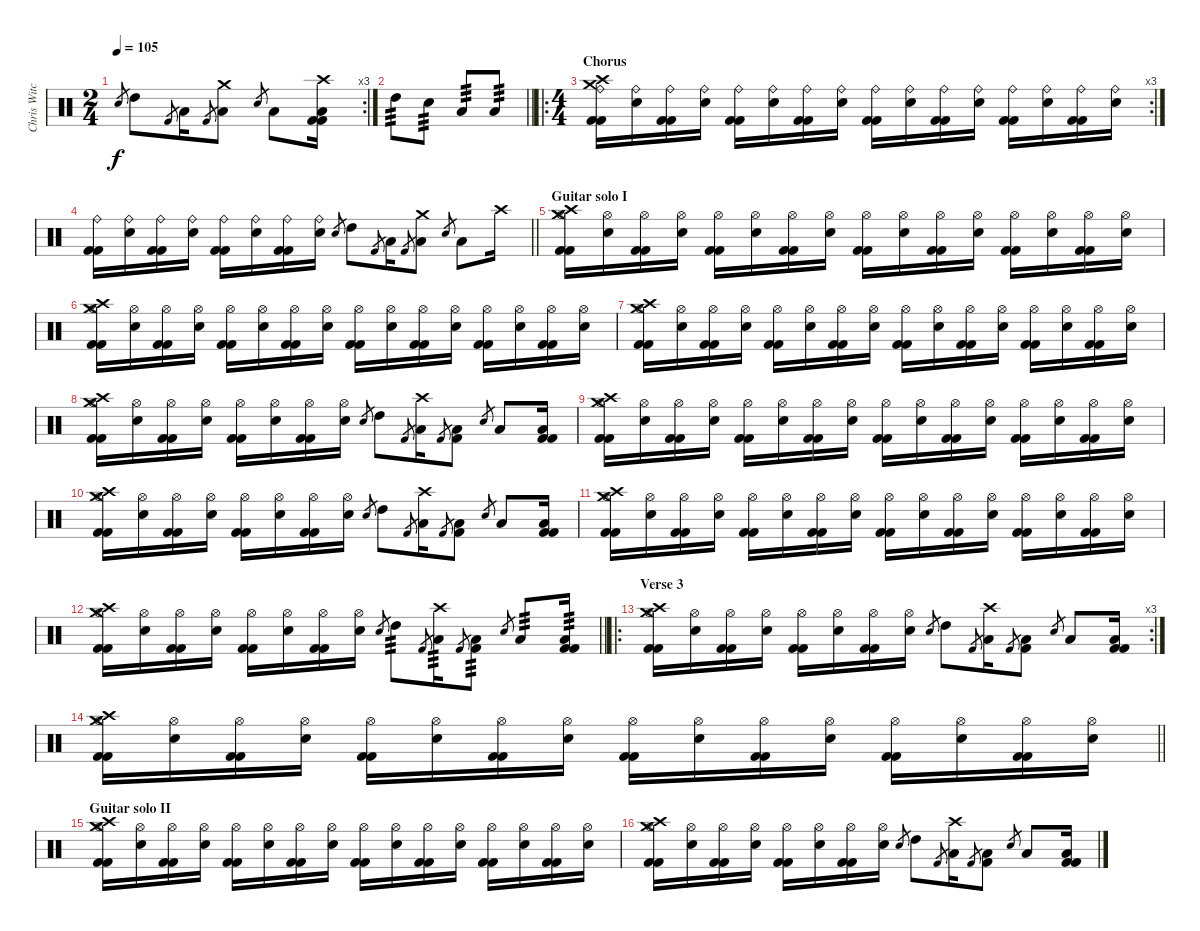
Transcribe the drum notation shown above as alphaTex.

\track ("Chris Witchhunter" "Chris Witc") {instrument percussion}
\staff {score}
\articulation defaults
\rc 3
\ts (2 4)
\tempo 105
\clef neutral
\ks c "Electric Snare (hit)".8{gr dy f} "High Tom (hit)".8 "Kick (hit) 2".8{gr} "Low Tom (hit)".16 "Kick (hit) 2".8{gr}
("Crash medium (hit)" "Low Tom (hit)").8 "Electric Snare (hit)".8{gr} "Low Floor Tom (hit)".8 ("Crash high (hit)" "Low Tom (hit)" "Kick (hit) 2" "Kick (hit) 2").16 |
\barLineRight lightlight "High Tom (hit)".8{tp 3} "Electric Snare (hit)".8{tp 3} "Low Floor Tom (hit)".8{tp 3} "Low Tom (hit)".8{tp 3}
|
\ro
\rc 3
\ts (4 4)
\section ("" "Chorus")
("Crash medium (hit)" "Crash high (hit)" "Ride (bell)" "Kick (hit) 2" "Kick (hit) 2").16 ("Ride (bell)" "Electric Snare (hit)").16 ("Ride (bell)" "Kick (hit) 2" "Kick (hit) 2").16 ("Ride (bell)" "Electric Snare (hit)").16 ("Ride (bell)" "Kick (hit) 2" "Kick (hit) 2").16 ("Ride (bell)" "Electric Snare (hit)").16 ("Ride (bell)" "Kick (hit) 2" "Kick (hit) 2").16 ("Ride (bell)" "Electric Snare (hit)").16 ("Ride (bell)" "Kick (hit) 2" "Kick (hit) 2").16 ("Ride (bell)" "Electric Snare (hit)").16 ("Ride (bell)" "Kick (hit) 2" "Kick (hit) 2").16 ("Ride (bell)" "Electric Snare (hit)").16 ("Ride (bell)" "Kick (hit) 2" "Kick (hit) 2").16 ("Ride (bell)" "Electric Snare (hit)").16 ("Ride (bell)" "Kick (hit) 2" "Kick (hit) 2").16 ("Ride (bell)" "Electric Snare (hit)").16 |
\barLineRight lightlight
("Ride (bell)" "Kick (hit) 2" "Kick (hit) 2").16 ("Ride (bell)" "Electric Snare (hit)").16 ("Ride (bell)" "Kick (hit) 2" "Kick (hit) 2").16 ("Ride (bell)" "Electric Snare (hit)").16 ("Ride (bell)" "Kick (hit) 2" "Kick (hit) 2").16 ("Ride (bell)" "Electric Snare (hit)").16 ("Ride (bell)" "Kick (hit) 2" "Kick (hit) 2").16 ("Ride (bell)" "Electric Snare (hit)").16 "Electric Snare (hit)".8{gr} "High Tom (hit)".8 "Kick (hit) 2".8{gr} "Low Tom (hit)".16 "Kick (hit) 2".8{gr} ("Crash medium (hit)" "Low Tom (hit)").8 "Electric Snare (hit)".8{gr} "Low Floor Tom (hit)".8 "Crash high (hit)".16 |
\section ("" "Guitar solo I")
("Crash medium (hit)" "Crash high (hit)" "Hi-Hat (open)" "Kick (hit) 2" "Kick (hit) 2").16 ("Hi-Hat (open)" "Electric Snare (hit)").16 ("Hi-Hat (open)" "Kick (hit) 2" "Kick (hit) 2").16 ("Hi-Hat (open)" "Electric Snare (hit)").16 ("Hi-Hat (open)" "Kick (hit) 2" "Kick (hit) 2").16 ("Hi-Hat (open)" "Electric Snare (hit)").16 ("Hi-Hat (open)" "Kick (hit) 2" "Kick (hit) 2").16 ("Hi-Hat (open)" "Electric Snare (hit)").16 ("Hi-Hat (open)" "Kick (hit) 2" "Kick (hit) 2").16 ("Hi-Hat (open)" "Electric Snare (hit)").16 ("Hi-Hat (open)" "Kick (hit) 2" "Kick (hit) 2").16 ("Hi-Hat (open)" "Electric Snare (hit)").16 ("Hi-Hat (open)" "Kick (hit) 2" "Kick (hit) 2").16 ("Hi-Hat (open)" "Electric Snare (hit)").16 ("Hi-Hat (open)" "Kick (hit) 2" "Kick (hit) 2").16 ("Hi-Hat (open)" "Electric Snare (hit)").16 |
("Crash medium (hit)" "Crash high (hit)" "Hi-Hat (open)" "Kick (hit) 2" "Kick (hit) 2").16 ("Hi-Hat (open)" "Electric Snare (hit)").16 ("Hi-Hat (open)" "Kick (hit) 2" "Kick (hit) 2").16 ("Hi-Hat (open)" "Electric Snare (hit)").16 ("Hi-Hat (open)" "Kick (hit) 2" "Kick (hit) 2").16 ("Hi-Hat (open)" "Electric Snare (hit)").16 ("Hi-Hat (open)" "Kick (hit) 2" "Kick (hit) 2").16 ("Hi-Hat (open)" "Electric Snare (hit)").16 ("Hi-Hat (open)" "Kick (hit) 2" "Kick (hit) 2").16 ("Hi-Hat (open)" "Electric Snare (hit)").16 ("Hi-Hat (open)" "Kick (hit) 2" "Kick (hit) 2").16 ("Hi-Hat (open)" "Electric Snare (hit)").16 ("Hi-Hat (open)" "Kick (hit) 2" "Kick (hit) 2").16 ("Hi-Hat (open)" "Electric Snare (hit)").16 ("Hi-Hat (open)" "Kick (hit) 2" "Kick (hit) 2").16 ("Hi-Hat (open)" "Electric Snare (hit)").16 |
("Crash medium (hit)" "Crash high (hit)" "Hi-Hat (open)" "Kick (hit) 2" "Kick (hit) 2").16 ("Hi-Hat (open)" "Electric Snare (hit)").16 ("Hi-Hat (open)" "Kick (hit) 2" "Kick (hit) 2").16 ("Hi-Hat (open)" "Electric Snare (hit)").16 ("Hi-Hat (open)" "Kick (hit) 2" "Kick (hit) 2").16 ("Hi-Hat (open)" "Electric Snare (hit)").16 ("Hi-Hat (open)" "Kick (hit) 2" "Kick (hit) 2").16 ("Hi-Hat (open)" "Electric Snare (hit)").16 ("Hi-Hat (open)" "Kick (hit) 2" "Kick (hit) 2").16 ("Hi-Hat (open)" "Electric Snare (hit)").16 ("Hi-Hat (open)" "Kick (hit) 2" "Kick (hit) 2").16 ("Hi-Hat (open)" "Electric Snare (hit)").16 ("Hi-Hat (open)" "Kick (hit) 2" "Kick (hit) 2").16 ("Hi-Hat (open)" "Electric Snare (hit)").16 ("Hi-Hat (open)" "Kick (hit) 2" "Kick (hit) 2").16 ("Hi-Hat (open)" "Electric Snare (hit)").16 |
("Crash medium (hit)" "Crash high (hit)" "Hi-Hat (open)" "Kick (hit) 2" "Kick (hit) 2").16 ("Hi-Hat (open)" "Electric Snare (hit)").16 ("Hi-Hat (open)" "Kick (hit) 2" "Kick (hit) 2").16 ("Hi-Hat (open)" "Electric Snare (hit)").16 ("Hi-Hat (open)" "Kick (hit) 2" "Kick (hit) 2").16 ("Hi-Hat (open)" "Electric Snare (hit)").16 ("Hi-Hat (open)" "Kick (hit) 2" "Kick (hit) 2").16 ("Hi-Hat (open)" "Electric Snare (hit)").16 "Electric Snare (hit)".8{gr} "High Tom (hit)".8 "Kick (hit) 2".8{gr} ("Crash high (hit)" "Low Tom (hit)").16 "Kick (hit) 2".8{gr} ("Low Tom (hit)" "Kick (hit) 2").8 "Electric Snare (hit)".8{gr} "Low Floor Tom (hit)".8 ("Low Tom (hit)" "Kick (hit) 2" "Kick (hit) 2").16 |
("Crash medium (hit)" "Crash high (hit)" "Hi-Hat (open)" "Kick (hit) 2" "Kick (hit) 2").16 ("Hi-Hat (open)" "Electric Snare (hit)").16 ("Hi-Hat (open)" "Kick (hit) 2" "Kick (hit) 2").16 ("Hi-Hat (open)" "Electric Snare (hit)").16 ("Hi-Hat (open)" "Kick (hit) 2" "Kick (hit) 2").16 ("Hi-Hat (open)" "Electric Snare (hit)").16 ("Hi-Hat (open)" "Kick (hit) 2" "Kick (hit) 2").16 ("Hi-Hat (open)" "Electric Snare (hit)").16 ("Hi-Hat (open)" "Kick (hit) 2" "Kick (hit) 2").16 ("Hi-Hat (open)" "Electric Snare (hit)").16 ("Hi-Hat (open)" "Kick (hit) 2" "Kick (hit) 2").16 ("Hi-Hat (open)" "Electric Snare (hit)").16 ("Hi-Hat (open)" "Kick (hit) 2" "Kick (hit) 2").16 ("Hi-Hat (open)" "Electric Snare (hit)").16 ("Hi-Hat (open)" "Kick (hit) 2" "Kick (hit) 2").16 ("Hi-Hat (open)" "Electric Snare (hit)").16 |
("Crash medium (hit)" "Crash high (hit)" "Hi-Hat (open)" "Kick (hit) 2" "Kick (hit) 2").16 ("Hi-Hat (open)" "Electric Snare (hit)").16 ("Hi-Hat (open)" "Kick (hit) 2" "Kick (hit) 2").16 ("Hi-Hat (open)" "Electric Snare (hit)").16 ("Hi-Hat (open)" "Kick (hit) 2" "Kick (hit) 2").16 ("Hi-Hat (open)" "Electric Snare (hit)").16 ("Hi-Hat (open)" "Kick (hit) 2" "Kick (hit) 2").16 ("Hi-Hat (open)" "Electric Snare (hit)").16 "Electric Snare (hit)".8{gr} "High Tom (hit)".8 "Kick (hit) 2".8{gr} ("Crash high (hit)" "Low Tom (hit)").16 "Kick (hit) 2".8{gr} ("Low Tom (hit)" "Kick (hit) 2").8 "Electric Snare (hit)".8{gr} "Low Floor Tom (hit)".8 ("Low Tom (hit)" "Kick (hit) 2" "Kick (hit) 2").16 |
("Crash medium (hit)" "Crash high (hit)" "Hi-Hat (open)" "Kick (hit) 2" "Kick (hit) 2").16 ("Hi-Hat (open)" "Electric Snare (hit)").16 ("Hi-Hat (open)" "Kick (hit) 2" "Kick (hit) 2").16 ("Hi-Hat (open)" "Electric Snare (hit)").16 ("Hi-Hat (open)" "Kick (hit) 2" "Kick (hit) 2").16 ("Hi-Hat (open)" "Electric Snare (hit)").16 ("Hi-Hat (open)" "Kick (hit) 2" "Kick (hit) 2").16 ("Hi-Hat (open)" "Electric Snare (hit)").16 ("Hi-Hat (open)" "Kick (hit) 2" "Kick (hit) 2").16 ("Hi-Hat (open)" "Electric Snare (hit)").16 ("Hi-Hat (open)" "Kick (hit) 2" "Kick (hit) 2").16 ("Hi-Hat (open)" "Electric Snare (hit)").16 ("Hi-Hat (open)" "Kick (hit) 2" "Kick (hit) 2").16 ("Hi-Hat (open)" "Electric Snare (hit)").16 ("Hi-Hat (open)" "Kick (hit) 2" "Kick (hit) 2").16 ("Hi-Hat (open)" "Electric Snare (hit)").16 |
\barLineRight lightlight
("Crash medium (hit)" "Crash high (hit)" "Hi-Hat (open)" "Kick (hit) 2" "Kick (hit) 2").16 ("Hi-Hat (open)" "Electric Snare (hit)").16 ("Hi-Hat (open)" "Kick (hit) 2" "Kick (hit) 2").16 ("Hi-Hat (open)" "Electric Snare (hit)").16 ("Hi-Hat (open)" "Kick (hit) 2" "Kick (hit) 2").16 ("Hi-Hat (open)" "Electric Snare (hit)").16 ("Hi-Hat (open)" "Kick (hit) 2" "Kick (hit) 2").16 ("Hi-Hat (open)" "Electric Snare (hit)").16 "Electric Snare (hit)".8{gr} "High Tom (hit)".8{tp 3} "Kick (hit) 2".8{gr} ("Crash high (hit)" "Low Tom (hit)").16{tp 3} "Kick (hit) 2".8{gr} ("Low Tom (hit)" "Kick (hit) 2").8{tp 3} "Electric Snare (hit)".8{gr} "Low Floor Tom (hit)".8{tp 3} ("Low Tom (hit)" "Kick (hit) 2" "Kick (hit) 2").16{tp 3} |
\ro
\rc 3
\section ("" "Verse 3")
("Crash medium (hit)" "Crash high (hit)" "Hi-Hat (open)" "Kick (hit) 2" "Kick (hit) 2").16 ("Hi-Hat (open)" "Electric Snare (hit)").16 ("Hi-Hat (open)" "Kick (hit) 2" "Kick (hit) 2").16 ("Hi-Hat (open)" "Electric Snare (hit)").16 ("Hi-Hat (open)" "Kick (hit) 2" "Kick (hit) 2").16 ("Hi-Hat (open)" "Electric Snare (hit)").16 ("Hi-Hat (open)" "Kick (hit) 2" "Kick (hit) 2").16 ("Hi-Hat (open)" "Electric Snare (hit)").16 "Electric Snare (hit)".8{gr} "High Tom (hit)".8 "Kick (hit) 2".8{gr} ("Crash high (hit)" "Low Tom (hit)").16 "Kick (hit) 2".8{gr} ("Low Tom (hit)" "Kick (hit) 2").8 "Electric Snare (hit)".8{gr} "Low Floor Tom (hit)".8 ("Low Tom (hit)" "Kick (hit) 2" "Kick (hit) 2").16 |
\barLineRight lightlight
("Crash medium (hit)" "Crash high (hit)" "Hi-Hat (open)" "Kick (hit) 2" "Kick (hit) 2").16 ("Hi-Hat (open)" "Electric Snare (hit)").16 ("Hi-Hat (open)" "Kick (hit) 2" "Kick (hit) 2").16 ("Hi-Hat (open)" "Electric Snare (hit)").16 ("Hi-Hat (open)" "Kick (hit) 2" "Kick (hit) 2").16 ("Hi-Hat (open)" "Electric Snare (hit)").16 ("Hi-Hat (open)" "Kick (hit) 2" "Kick (hit) 2").16 ("Hi-Hat (open)" "Electric Snare (hit)").16 ("Hi-Hat (open)" "Kick (hit) 2" "Kick (hit) 2").16 ("Hi-Hat (open)" "Electric Snare (hit)").16 ("Hi-Hat (open)" "Kick (hit) 2" "Kick (hit) 2").16 ("Hi-Hat (open)" "Electric Snare (hit)").16 ("Hi-Hat (open)" "Kick (hit) 2" "Kick (hit) 2").16 ("Hi-Hat (open)" "Electric Snare (hit)").16 ("Hi-Hat (open)" "Kick (hit) 2" "Kick (hit) 2").16 ("Hi-Hat (open)" "Electric Snare (hit)").16 |
\section ("" "Guitar solo II")
("Crash medium (hit)" "Crash high (hit)" "Hi-Hat (open)" "Kick (hit) 2" "Kick (hit) 2").16 ("Hi-Hat (open)" "Electric Snare (hit)").16 ("Hi-Hat (open)" "Kick (hit) 2" "Kick (hit) 2").16 ("Hi-Hat (open)" "Electric Snare (hit)").16 ("Hi-Hat (open)" "Kick (hit) 2" "Kick (hit) 2").16 ("Hi-Hat (open)" "Electric Snare (hit)").16 ("Hi-Hat (open)" "Kick (hit) 2" "Kick (hit) 2").16 ("Hi-Hat (open)" "Electric Snare (hit)").16 ("Hi-Hat (open)" "Kick (hit) 2" "Kick (hit) 2").16 ("Hi-Hat (open)" "Electric Snare (hit)").16 ("Hi-Hat (open)" "Kick (hit) 2" "Kick (hit) 2").16 ("Hi-Hat (open)" "Electric Snare (hit)").16 ("Hi-Hat (open)" "Kick (hit) 2" "Kick (hit) 2").16 ("Hi-Hat (open)" "Electric Snare (hit)").16 ("Hi-Hat (open)" "Kick (hit) 2" "Kick (hit) 2").16 ("Hi-Hat (open)" "Electric Snare (hit)").16 |
("Crash medium (hit)" "Crash high (hit)" "Hi-Hat (open)" "Kick (hit) 2" "Kick (hit) 2").16 ("Hi-Hat (open)" "Electric Snare (hit)").16 ("Hi-Hat (open)" "Kick (hit) 2" "Kick (hit) 2").16 ("Hi-Hat (open)" "Electric Snare (hit)").16 ("Hi-Hat (open)" "Kick (hit) 2" "Kick (hit) 2").16 ("Hi-Hat (open)" "Electric Snare (hit)").16 ("Hi-Hat (open)" "Kick (hit) 2" "Kick (hit) 2").16 ("Hi-Hat (open)" "Electric Snare (hit)").16 "Electric Snare (hit)".8{gr} "High Tom (hit)".8 "Kick (hit) 2".8{gr} ("Crash high (hit)" "Low Tom (hit)").16 "Kick (hit) 2".8{gr} ("Low Tom (hit)" "Kick (hit) 2").8 "Electric Snare (hit)".8{gr} "Low Floor Tom (hit)".8 ("Low Tom (hit)" "Kick (hit) 2" "Kick (hit) 2").16
